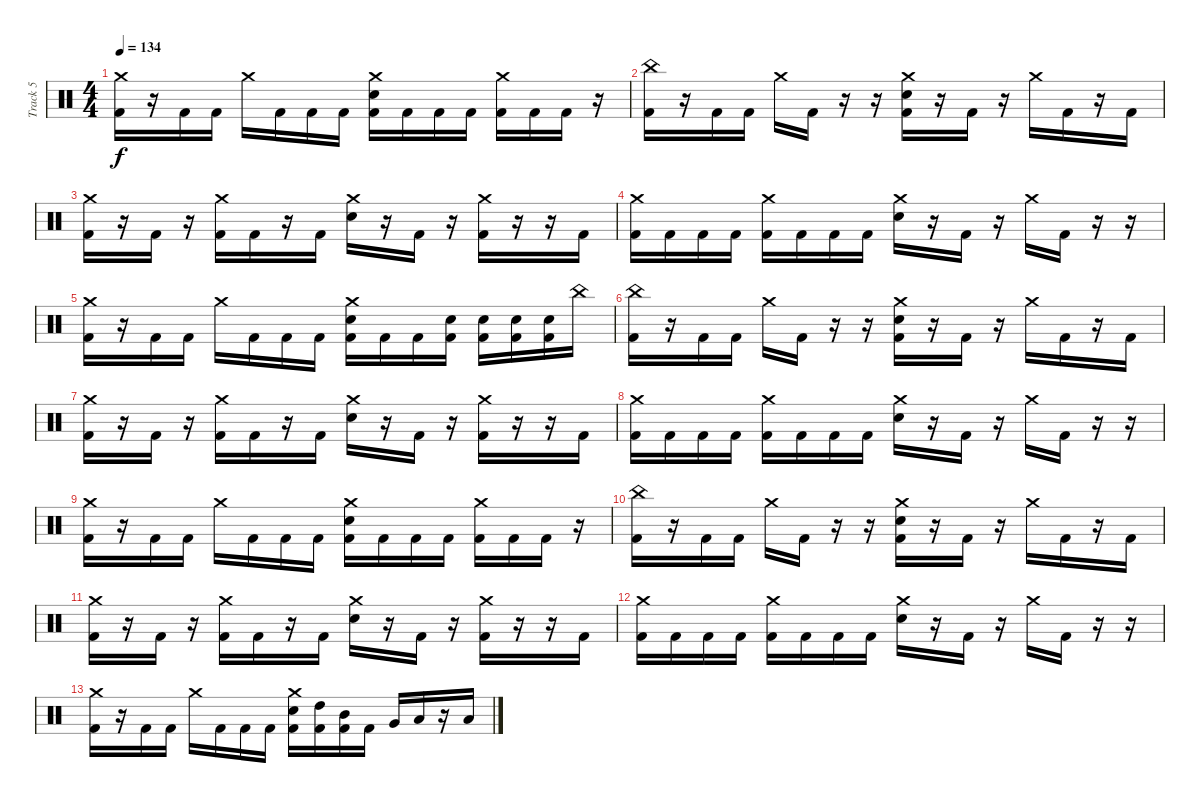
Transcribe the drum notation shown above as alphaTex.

\track ("Track 5" "Track 5") {instrument percussion}
\staff {score}
\articulation defaults
\ts (4 4)
\tempo 134
\clef neutral
\ks c
("Crash medium (hit)" "Kick (hit) 2").16{dy f} r.16 "Kick (hit) 2".16 "Kick (hit) 2".16 "Crash medium (hit)".16 "Kick (hit) 2".16 "Kick (hit) 2".16 "Kick (hit) 2".16 ("Crash medium (hit)" "Electric Snare (hit)" "Kick (hit) 2").16 "Kick (hit) 2".16 "Kick (hit) 2".16 "Kick (hit) 2".16 ("Crash medium (hit)" "Kick (hit) 2").16 "Kick (hit) 2".16 "Kick (hit) 2".16 r.16 |
("China (hit)" "Kick (hit) 2").16 r.16 "Kick (hit) 2".16 "Kick (hit) 2".16 "Crash medium (hit)".16 "Kick (hit) 2".16 r.16 r.16 ("Crash medium (hit)" "Electric Snare (hit)" "Kick (hit) 2").16 r.16 "Kick (hit) 2".16 r.16 "Crash medium (hit)".16 "Kick (hit) 2".16 r.16 "Kick (hit) 2".16 |
("Crash medium (hit)" "Kick (hit) 2").16 r.16 "Kick (hit) 2".16 r.16 ("Crash medium (hit)" "Kick (hit) 2").16 "Kick (hit) 2".16 r.16 "Kick (hit) 2".16 ("Crash medium (hit)" "Electric Snare (hit)").16 r.16 "Kick (hit) 2".16 r.16 ("Crash medium (hit)" "Kick (hit) 2").16 r.16 r.16 "Kick (hit) 2".16 |
("Crash medium (hit)" "Kick (hit) 2").16 "Kick (hit) 2".16 "Kick (hit) 2".16 "Kick (hit) 2".16 ("Crash medium (hit)" "Kick (hit) 2").16 "Kick (hit) 2".16 "Kick (hit) 2".16 "Kick (hit) 2".16 ("Crash medium (hit)" "Electric Snare (hit)").16 r.16 "Kick (hit) 2".16 r.16 "Crash medium (hit)".16 "Kick (hit) 2".16 r.16 r.16 |
("Crash medium (hit)" "Kick (hit) 2").16 r.16 "Kick (hit) 2".16 "Kick (hit) 2".16 "Crash medium (hit)".16 "Kick (hit) 2".16 "Kick (hit) 2".16 "Kick (hit) 2".16 ("Crash medium (hit)" "Electric Snare (hit)" "Kick (hit) 2").16 "Kick (hit) 2".16 "Kick (hit) 2".16 ("Electric Snare (hit)" "Kick (hit) 2").16 ("Electric Snare (hit)" "Kick (hit) 2").16 ("Electric Snare (hit)" "Kick (hit) 2").16 ("Electric Snare (hit)" "Kick (hit) 2").16 "China (hit)".16 |
("China (hit)" "Kick (hit) 2").16 r.16 "Kick (hit) 2".16 "Kick (hit) 2".16 "Crash medium (hit)".16 "Kick (hit) 2".16 r.16 r.16 ("Crash medium (hit)" "Electric Snare (hit)" "Kick (hit) 2").16 r.16 "Kick (hit) 2".16 r.16 "Crash medium (hit)".16 "Kick (hit) 2".16 r.16 "Kick (hit) 2".16 |
("Crash medium (hit)" "Kick (hit) 2").16 r.16 "Kick (hit) 2".16 r.16 ("Crash medium (hit)" "Kick (hit) 2").16 "Kick (hit) 2".16 r.16 "Kick (hit) 2".16 ("Crash medium (hit)" "Electric Snare (hit)").16 r.16 "Kick (hit) 2".16 r.16 ("Crash medium (hit)" "Kick (hit) 2").16 r.16 r.16 "Kick (hit) 2".16 |
("Crash medium (hit)" "Kick (hit) 2").16 "Kick (hit) 2".16 "Kick (hit) 2".16 "Kick (hit) 2".16 ("Crash medium (hit)" "Kick (hit) 2").16 "Kick (hit) 2".16 "Kick (hit) 2".16 "Kick (hit) 2".16 ("Crash medium (hit)" "Electric Snare (hit)").16 r.16 "Kick (hit) 2".16 r.16 "Crash medium (hit)".16 "Kick (hit) 2".16 r.16 r.16 |
("Crash medium (hit)" "Kick (hit) 2").16 r.16 "Kick (hit) 2".16 "Kick (hit) 2".16 "Crash medium (hit)".16 "Kick (hit) 2".16 "Kick (hit) 2".16 "Kick (hit) 2".16 ("Crash medium (hit)" "Electric Snare (hit)" "Kick (hit) 2").16 "Kick (hit) 2".16 "Kick (hit) 2".16 "Kick (hit) 2".16 ("Crash medium (hit)" "Kick (hit) 2").16 "Kick (hit) 2".16 "Kick (hit) 2".16 r.16 |
("China (hit)" "Kick (hit) 2").16 r.16 "Kick (hit) 2".16 "Kick (hit) 2".16 "Crash medium (hit)".16 "Kick (hit) 2".16 r.16 r.16 ("Crash medium (hit)" "Electric Snare (hit)" "Kick (hit) 2").16 r.16 "Kick (hit) 2".16 r.16 "Crash medium (hit)".16 "Kick (hit) 2".16 r.16 "Kick (hit) 2".16 |
("Crash medium (hit)" "Kick (hit) 2").16 r.16 "Kick (hit) 2".16 r.16 ("Crash medium (hit)" "Kick (hit) 2").16 "Kick (hit) 2".16 r.16 "Kick (hit) 2".16 ("Crash medium (hit)" "Electric Snare (hit)").16 r.16 "Kick (hit) 2".16 r.16 ("Crash medium (hit)" "Kick (hit) 2").16 r.16 r.16 "Kick (hit) 2".16 |
("Crash medium (hit)" "Kick (hit) 2").16 "Kick (hit) 2".16 "Kick (hit) 2".16 "Kick (hit) 2".16 ("Crash medium (hit)" "Kick (hit) 2").16 "Kick (hit) 2".16 "Kick (hit) 2".16 "Kick (hit) 2".16 ("Crash medium (hit)" "Electric Snare (hit)").16 r.16 "Kick (hit) 2".16 r.16 "Crash medium (hit)".16 "Kick (hit) 2".16 r.16 r.16 |
("Crash medium (hit)" "Kick (hit) 2").16 r.16 "Kick (hit) 2".16 "Kick (hit) 2".16 "Crash medium (hit)".16 "Kick (hit) 2".16 "Kick (hit) 2".16 "Kick (hit) 2".16 ("Crash medium (hit)" "Electric Snare (hit)" "Kick (hit) 2").16 ("High Tom (hit)" "Kick (hit) 2").16 ("Mid Tom (hit)" "Kick (hit) 2").16 "Kick (hit) 2".16 "Very Low Tom (hit)".16 "Low Floor Tom (hit)".16 r.16 "Low Floor Tom (hit)".16
